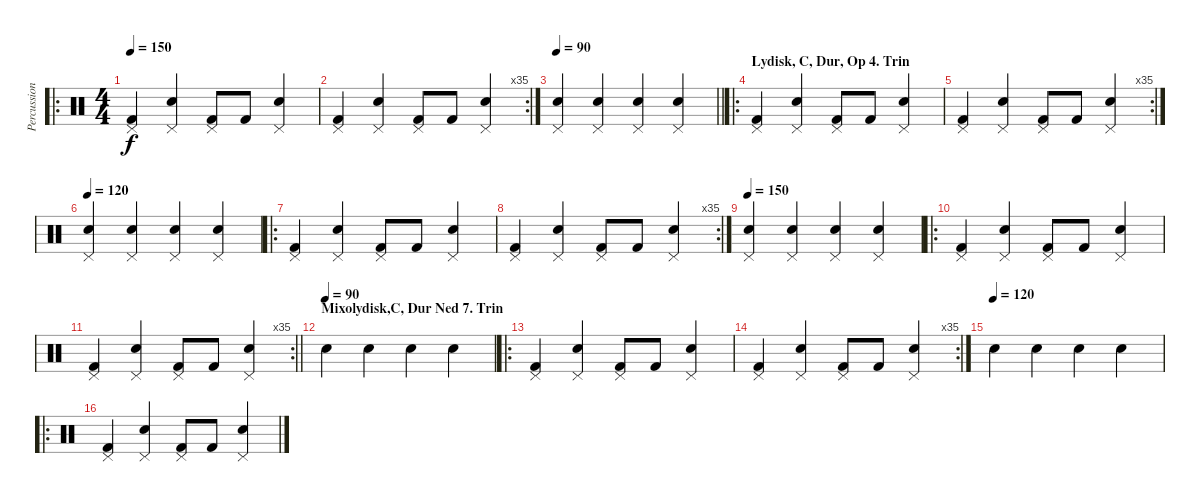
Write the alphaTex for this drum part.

\track ("Percussion" "Percussion") {instrument percussion}
\staff {score}
\articulation defaults
\ro
\ts (4 4)
\tempo 150
\clef neutral
\ks c
("Pedal Hi-Hat (hit)" "Kick (hit) 2").4{dy f} ("Pedal Hi-Hat (hit)" "Electric Snare (hit)").4 ("Pedal Hi-Hat (hit)" "Kick (hit) 2").8 "Kick (hit) 2".8 ("Pedal Hi-Hat (hit)" "Electric Snare (hit)").4 |
\rc 35
("Pedal Hi-Hat (hit)" "Kick (hit) 2").4 ("Pedal Hi-Hat (hit)" "Electric Snare (hit)").4 ("Pedal Hi-Hat (hit)" "Kick (hit) 2").8 "Kick (hit) 2".8 ("Pedal Hi-Hat (hit)" "Electric Snare (hit)").4 |
\tempo 90
\barLineRight lightlight
("Pedal Hi-Hat (hit)" "Electric Snare (hit)").4 ("Pedal Hi-Hat (hit)" "Electric Snare (hit)").4 ("Pedal Hi-Hat (hit)" "Electric Snare (hit)").4 ("Pedal Hi-Hat (hit)" "Electric Snare (hit)").4 |
\ro
\section ("" "Lydisk, C, Dur, Op 4. Trin")
("Pedal Hi-Hat (hit)" "Kick (hit) 2").4 ("Pedal Hi-Hat (hit)" "Electric Snare (hit)").4 ("Pedal Hi-Hat (hit)" "Kick (hit) 2").8 "Kick (hit) 2".8 ("Pedal Hi-Hat (hit)" "Electric Snare (hit)").4 |
\rc 35
("Pedal Hi-Hat (hit)" "Kick (hit) 2").4 ("Pedal Hi-Hat (hit)" "Electric Snare (hit)").4 ("Pedal Hi-Hat (hit)" "Kick (hit) 2").8 "Kick (hit) 2".8 ("Pedal Hi-Hat (hit)" "Electric Snare (hit)").4 |
\tempo 120
("Pedal Hi-Hat (hit)" "Electric Snare (hit)").4 ("Pedal Hi-Hat (hit)" "Electric Snare (hit)").4 ("Pedal Hi-Hat (hit)" "Electric Snare (hit)").4 ("Pedal Hi-Hat (hit)" "Electric Snare (hit)").4 |
\ro
("Pedal Hi-Hat (hit)" "Kick (hit) 2").4 ("Pedal Hi-Hat (hit)" "Electric Snare (hit)").4 ("Pedal Hi-Hat (hit)" "Kick (hit) 2").8 "Kick (hit) 2".8 ("Pedal Hi-Hat (hit)" "Electric Snare (hit)").4 |
\rc 35
("Pedal Hi-Hat (hit)" "Kick (hit) 2").4 ("Pedal Hi-Hat (hit)" "Electric Snare (hit)").4 ("Pedal Hi-Hat (hit)" "Kick (hit) 2").8 "Kick (hit) 2".8 ("Pedal Hi-Hat (hit)" "Electric Snare (hit)").4 |
\tempo 150
("Pedal Hi-Hat (hit)" "Electric Snare (hit)").4 ("Pedal Hi-Hat (hit)" "Electric Snare (hit)").4 ("Pedal Hi-Hat (hit)" "Electric Snare (hit)").4 ("Pedal Hi-Hat (hit)" "Electric Snare (hit)").4 |
\ro
("Pedal Hi-Hat (hit)" "Kick (hit) 2").4 ("Pedal Hi-Hat (hit)" "Electric Snare (hit)").4 ("Pedal Hi-Hat (hit)" "Kick (hit) 2").8 "Kick (hit) 2".8 ("Pedal Hi-Hat (hit)" "Electric Snare (hit)").4 |
\rc 35
\barLineRight lightlight
("Pedal Hi-Hat (hit)" "Kick (hit) 2").4 ("Pedal Hi-Hat (hit)" "Electric Snare (hit)").4 ("Pedal Hi-Hat (hit)" "Kick (hit) 2").8 "Kick (hit) 2".8 ("Pedal Hi-Hat (hit)" "Electric Snare (hit)").4 |
\section ("" "Mixolydisk,C, Dur Ned 7. Trin")
\tempo (90)
"Electric Snare (hit)".4 "Electric Snare (hit)".4 "Electric Snare (hit)".4 "Electric Snare (hit)".4 |
\ro
("Pedal Hi-Hat (hit)" "Kick (hit) 2").4 ("Pedal Hi-Hat (hit)" "Electric Snare (hit)").4 ("Pedal Hi-Hat (hit)" "Kick (hit) 2").8 "Kick (hit) 2".8 ("Pedal Hi-Hat (hit)" "Electric Snare (hit)").4 |
\rc 35
("Pedal Hi-Hat (hit)" "Kick (hit) 2").4 ("Pedal Hi-Hat (hit)" "Electric Snare (hit)").4 ("Pedal Hi-Hat (hit)" "Kick (hit) 2").8 "Kick (hit) 2".8 ("Pedal Hi-Hat (hit)" "Electric Snare (hit)").4 |
\tempo (120)
"Electric Snare (hit)".4 "Electric Snare (hit)".4 "Electric Snare (hit)".4 "Electric Snare (hit)".4 |
\ro
("Pedal Hi-Hat (hit)" "Kick (hit) 2").4 ("Pedal Hi-Hat (hit)" "Electric Snare (hit)").4 ("Pedal Hi-Hat (hit)" "Kick (hit) 2").8 "Kick (hit) 2".8 ("Pedal Hi-Hat (hit)" "Electric Snare (hit)").4
